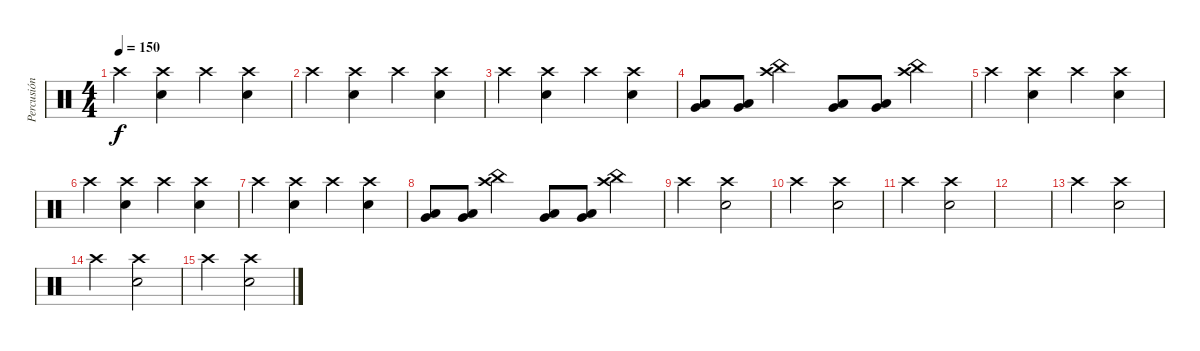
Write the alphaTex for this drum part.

\track ("Percusión" "Percusión") {instrument percussion}
\staff {score}
\articulation defaults
\ts (4 4)
\tempo 150
\clef neutral
\ks c "Crash high (hit)".4{dy f}
("Snare (hit) 2" "Crash high (hit)").4 "Crash high (hit)".4 ("Snare (hit) 2" "Crash high (hit)").4 |
"Crash high (hit)".4 ("Snare (hit) 2" "Crash high (hit)").4 "Crash high (hit)".4 ("Snare (hit) 2" "Crash high (hit)").4 |
"Crash high (hit)".4 ("Snare (hit) 2" "Crash high (hit)").4 "Crash high (hit)".4 ("Snare (hit) 2" "Crash high (hit)").4 |
("Low Tom (hit)" "Very Low Tom (hit)").8 ("Low Tom (hit)" "Very Low Tom (hit)").8 ("China (hit)" "Crash high (hit)").4 ("Low Tom (hit)" "Very Low Tom (hit)").8 ("Low Tom (hit)" "Very Low Tom (hit)").8 ("China (hit)" "Crash high (hit)").4 |
"Crash high (hit)".4 ("Snare (hit) 2" "Crash high (hit)").4 "Crash high (hit)".4 ("Snare (hit) 2" "Crash high (hit)").4 |
"Crash high (hit)".4 ("Snare (hit) 2" "Crash high (hit)").4 "Crash high (hit)".4 ("Snare (hit) 2" "Crash high (hit)").4 |
"Crash high (hit)".4 ("Snare (hit) 2" "Crash high (hit)").4 "Crash high (hit)".4 ("Snare (hit) 2" "Crash high (hit)").4 |
("Low Tom (hit)" "Very Low Tom (hit)").8 ("Low Tom (hit)" "Very Low Tom (hit)").8 ("China (hit)" "Crash high (hit)").4 ("Low Tom (hit)" "Very Low Tom (hit)").8 ("Low Tom (hit)" "Very Low Tom (hit)").8 ("China (hit)" "Crash high (hit)").4 |
"Crash high (hit)".2 ("Snare (hit) 2" "Crash high (hit)").2 |
"Crash high (hit)".2 ("Snare (hit) 2" "Crash high (hit)").2 |
"Crash high (hit)".2 ("Snare (hit) 2" "Crash high (hit)").2 |
|
"Crash high (hit)".2 ("Snare (hit) 2" "Crash high (hit)").2 |
"Crash high (hit)".2 ("Snare (hit) 2" "Crash high (hit)").2 |
"Crash high (hit)".2 ("Snare (hit) 2" "Crash high (hit)").2
